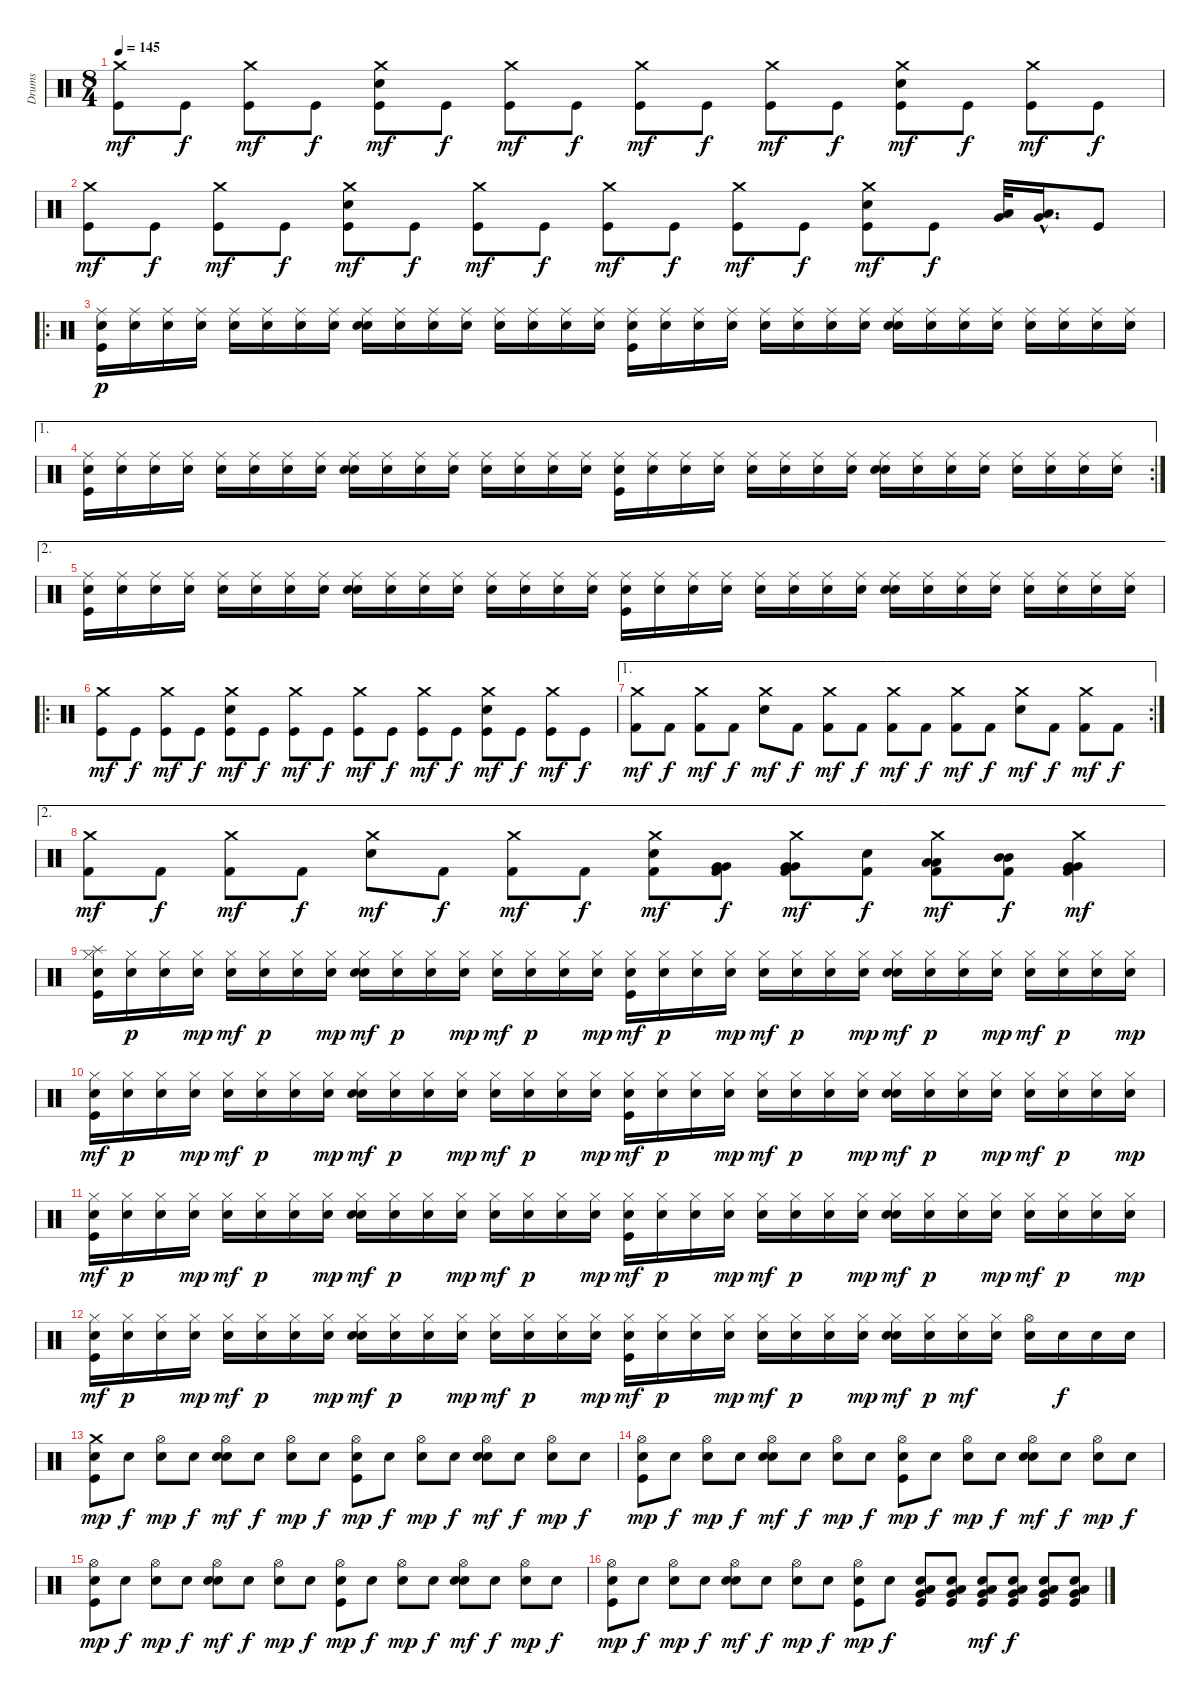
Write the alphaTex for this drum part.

\track ("Drums" "Drums") {instrument percussion}
\staff {score}
\articulation defaults
\ts (8 4)
\tempo 145
\clef neutral
\ks c
("Crash medium (hit)" "Kick (hit)").8{dy mf} "Kick (hit)".8{dy f} ("Crash medium (hit)" "Kick (hit)").8{dy mf} "Kick (hit)".8{dy f} ("Crash medium (hit)" "Electric Snare (hit)" "Kick (hit)").8{dy mf} "Kick (hit)".8{dy f} ("Crash medium (hit)" "Kick (hit)").8{dy mf} "Kick (hit)".8{dy f} ("Crash medium (hit)" "Kick (hit)").8{dy mf} "Kick (hit)".8{dy f} ("Crash medium (hit)" "Kick (hit)").8{dy mf} "Kick (hit)".8{dy f} ("Crash medium (hit)" "Electric Snare (hit)" "Kick (hit)").8{dy mf} "Kick (hit)".8{dy f} ("Crash medium (hit)" "Kick (hit)").8{dy mf} "Kick (hit)".8{dy f} |
("Crash medium (hit)" "Kick (hit)").8{dy mf} "Kick (hit)".8{dy f} ("Crash medium (hit)" "Kick (hit)").8{dy mf} "Kick (hit)".8{dy f} ("Crash medium (hit)" "Electric Snare (hit)" "Kick (hit)").8{dy mf} "Kick (hit)".8{dy f} ("Crash medium (hit)" "Kick (hit)").8{dy mf} "Kick (hit)".8{dy f} ("Crash medium (hit)" "Kick (hit)").8{dy mf} "Kick (hit)".8{dy f} ("Crash medium (hit)" "Kick (hit)").8{dy mf} "Kick (hit)".8{dy f} ("Crash medium (hit)" "Electric Snare (hit)" "Kick (hit)").8{dy mf} "Kick (hit)".8{dy f} ("Low Tom (hit)" "Very Low Tom (hit)").32 ("Low Tom (hit)"{hac} "Very Low Tom (hit)"{hac}).16{d} "Kick (hit)".8 |
\ro
("Snare (hit)"{x} "Ride (middle)" "Kick (hit)").16{dy p} ("Snare (hit)"{x} "Ride (middle)").16 ("Snare (hit)"{x} "Ride (middle)").16 ("Snare (hit)"{x} "Ride (middle)").16 ("Snare (hit)"{x} "Ride (middle)").16 ("Snare (hit)"{x} "Ride (middle)").16 ("Snare (hit)"{x} "Ride (middle)").16 ("Snare (hit)"{x} "Ride (middle)").16 ("Snare (hit)"{x} "Ride (middle)" "Electric Snare (hit)").16 ("Snare (hit)"{x} "Ride (middle)").16 ("Snare (hit)"{x} "Ride (middle)").16 ("Snare (hit)"{x} "Ride (middle)").16 ("Snare (hit)"{x} "Ride (middle)").16 ("Snare (hit)"{x} "Ride (middle)").16 ("Snare (hit)"{x} "Ride (middle)").16 ("Snare (hit)"{x} "Ride (middle)").16 ("Snare (hit)"{x} "Ride (middle)" "Kick (hit)").16 ("Snare (hit)"{x} "Ride (middle)").16 ("Snare (hit)"{x} "Ride (middle)").16 ("Snare (hit)"{x} "Ride (middle)").16 ("Snare (hit)"{x} "Ride (middle)").16 ("Snare (hit)"{x} "Ride (middle)").16 ("Snare (hit)"{x} "Ride (middle)").16 ("Snare (hit)"{x} "Ride (middle)").16 ("Snare (hit)"{x} "Ride (middle)" "Electric Snare (hit)").16 ("Snare (hit)"{x} "Ride (middle)").16 ("Snare (hit)"{x} "Ride (middle)").16 ("Snare (hit)"{x} "Ride (middle)").16 ("Snare (hit)"{x} "Ride (middle)").16 ("Snare (hit)"{x} "Ride (middle)").16 ("Snare (hit)"{x} "Ride (middle)").16 ("Snare (hit)"{x} "Ride (middle)").16 |
\ae 1
\rc 2
("Snare (hit)"{x} "Ride (middle)" "Kick (hit)").16 ("Snare (hit)"{x} "Ride (middle)").16 ("Snare (hit)"{x} "Ride (middle)").16 ("Snare (hit)"{x} "Ride (middle)").16 ("Snare (hit)"{x} "Ride (middle)").16 ("Snare (hit)"{x} "Ride (middle)").16 ("Snare (hit)"{x} "Ride (middle)").16 ("Snare (hit)"{x} "Ride (middle)").16 ("Snare (hit)"{x} "Ride (middle)" "Electric Snare (hit)").16 ("Snare (hit)"{x} "Ride (middle)").16 ("Snare (hit)"{x} "Ride (middle)").16 ("Snare (hit)"{x} "Ride (middle)").16 ("Snare (hit)"{x} "Ride (middle)").16 ("Snare (hit)"{x} "Ride (middle)").16 ("Snare (hit)"{x} "Ride (middle)").16 ("Snare (hit)"{x} "Ride (middle)").16 ("Snare (hit)"{x} "Ride (middle)" "Kick (hit)").16 ("Snare (hit)"{x} "Ride (middle)").16 ("Snare (hit)"{x} "Ride (middle)").16 ("Snare (hit)"{x} "Ride (middle)").16 ("Snare (hit)"{x} "Ride (middle)").16 ("Snare (hit)"{x} "Ride (middle)").16 ("Snare (hit)"{x} "Ride (middle)").16 ("Snare (hit)"{x} "Ride (middle)").16 ("Snare (hit)"{x} "Ride (middle)" "Electric Snare (hit)").16 ("Snare (hit)"{x} "Ride (middle)").16 ("Snare (hit)"{x} "Ride (middle)").16 ("Snare (hit)"{x} "Ride (middle)").16 ("Snare (hit)"{x} "Ride (middle)").16 ("Snare (hit)"{x} "Ride (middle)").16 ("Snare (hit)"{x} "Ride (middle)").16 ("Snare (hit)"{x} "Ride (middle)").16 |
\ae 2
("Snare (hit)"{x} "Ride (middle)" "Kick (hit)").16 ("Snare (hit)"{x} "Ride (middle)").16 ("Snare (hit)"{x} "Ride (middle)").16 ("Snare (hit)"{x} "Ride (middle)").16 ("Snare (hit)"{x} "Ride (middle)").16 ("Snare (hit)"{x} "Ride (middle)").16 ("Snare (hit)"{x} "Ride (middle)").16 ("Snare (hit)"{x} "Ride (middle)").16 ("Snare (hit)"{x} "Ride (middle)" "Electric Snare (hit)").16 ("Snare (hit)"{x} "Ride (middle)").16 ("Snare (hit)"{x} "Ride (middle)").16 ("Snare (hit)"{x} "Ride (middle)").16 ("Snare (hit)"{x} "Ride (middle)").16 ("Snare (hit)"{x} "Ride (middle)").16 ("Snare (hit)"{x} "Ride (middle)").16 ("Snare (hit)"{x} "Ride (middle)").16 ("Snare (hit)"{x} "Ride (middle)" "Kick (hit)").16 ("Snare (hit)"{x} "Ride (middle)").16 ("Snare (hit)"{x} "Ride (middle)").16 ("Snare (hit)"{x} "Ride (middle)").16 ("Snare (hit)"{x} "Ride (middle)").16 ("Snare (hit)"{x} "Ride (middle)").16 ("Snare (hit)"{x} "Ride (middle)").16 ("Snare (hit)"{x} "Ride (middle)").16 ("Snare (hit)"{x} "Ride (middle)" "Electric Snare (hit)").16 ("Snare (hit)"{x} "Ride (middle)").16 ("Snare (hit)"{x} "Ride (middle)").16 ("Snare (hit)"{x} "Ride (middle)").16 ("Snare (hit)"{x} "Ride (middle)").16 ("Snare (hit)"{x} "Ride (middle)").16 ("Snare (hit)"{x} "Ride (middle)").16 ("Snare (hit)"{x} "Ride (middle)").16 |
\ro
("Crash medium (hit)" "Kick (hit)").8{dy mf} "Kick (hit)".8{dy f} ("Crash medium (hit)" "Kick (hit)").8{dy mf} "Kick (hit)".8{dy f} ("Crash medium (hit)" "Electric Snare (hit)" "Kick (hit)").8{dy mf} "Kick (hit)".8{dy f} ("Crash medium (hit)" "Kick (hit)").8{dy mf} "Kick (hit)".8{dy f} ("Crash medium (hit)" "Kick (hit)").8{dy mf} "Kick (hit)".8{dy f} ("Crash medium (hit)" "Kick (hit)").8{dy mf} "Kick (hit)".8{dy f} ("Crash medium (hit)" "Electric Snare (hit)" "Kick (hit)").8{dy mf} "Kick (hit)".8{dy f} ("Crash medium (hit)" "Kick (hit)").8{dy mf} "Kick (hit)".8{dy f} |
\ae 1
\rc 2
("Crash medium (hit)" "Kick (hit) 2").8{dy mf} "Kick (hit) 2".8{dy f} ("Crash medium (hit)" "Kick (hit) 2").8{dy mf} "Kick (hit) 2".8{dy f} ("Crash medium (hit)" "Electric Snare (hit)").8{dy mf} "Kick (hit) 2".8{dy f} ("Crash medium (hit)" "Kick (hit) 2").8{dy mf} "Kick (hit) 2".8{dy f} ("Crash medium (hit)" "Kick (hit) 2").8{dy mf} "Kick (hit) 2".8{dy f} ("Crash medium (hit)" "Kick (hit) 2").8{dy mf} "Kick (hit) 2".8{dy f} ("Crash medium (hit)" "Electric Snare (hit)").8{dy mf} "Kick (hit) 2".8{dy f} ("Crash medium (hit)" "Kick (hit) 2").8{dy mf} "Kick (hit) 2".8{dy f} |
\ae 2
("Crash medium (hit)" "Kick (hit) 2").8{dy mf} "Kick (hit) 2".8{dy f} ("Crash medium (hit)" "Kick (hit) 2").8{dy mf} "Kick (hit) 2".8{dy f} ("Crash medium (hit)" "Electric Snare (hit)").8{dy mf} "Kick (hit) 2".8{dy f} ("Crash medium (hit)" "Kick (hit) 2").8{dy mf} "Kick (hit) 2".8{dy f} ("Crash medium (hit)" "Electric Snare (hit)" "Kick (hit) 2").8{dy mf} ("Very Low Tom (hit)" "Very Low Tom (hit)" "Kick (hit) 2").8{dy f} ("Crash medium (hit)" "Very Low Tom (hit)" "Very Low Tom (hit)" "Kick (hit) 2").8{dy mf} ("Electric Snare (hit)" "Kick (hit) 2").8{dy f} ("Crash medium (hit)" "Low Tom (hit)" "Low Tom (hit)" "Kick (hit) 2").8{dy mf} ("Mid Tom (hit)" "Mid Tom (hit)" "Kick (hit) 2").8{dy f} ("Crash medium (hit)" "Very Low Tom (hit)" "Very Low Tom (hit)" "Kick (hit) 2").4{dy mf} |
("Snare (hit)"{x} "Hi-Hat (closed)" "Splash (hit)" "Kick (hit)").16 ("Snare (hit)"{x} "Hi-Hat (closed)").16{dy p} ("Snare (hit)"{x} "Hi-Hat (closed)").16 ("Snare (hit)"{x} "Hi-Hat (closed)").16{dy mp} ("Snare (hit)"{x} "Hi-Hat (closed)").16{dy mf} ("Snare (hit)"{x} "Hi-Hat (closed)").16{dy p} ("Snare (hit)"{x} "Hi-Hat (closed)").16 ("Snare (hit)"{x} "Hi-Hat (closed)").16{dy mp} ("Snare (hit)"{x} "Hi-Hat (closed)" "Electric Snare (hit)").16{dy mf} ("Snare (hit)"{x} "Hi-Hat (closed)").16{dy p} ("Snare (hit)"{x} "Hi-Hat (closed)").16 ("Snare (hit)"{x} "Hi-Hat (closed)").16{dy mp} ("Snare (hit)"{x} "Hi-Hat (closed)").16{dy mf} ("Snare (hit)"{x} "Hi-Hat (closed)").16{dy p} ("Snare (hit)"{x} "Hi-Hat (closed)").16 ("Snare (hit)"{x} "Hi-Hat (closed)").16{dy mp} ("Snare (hit)"{x} "Hi-Hat (closed)" "Kick (hit)").16{dy mf} ("Snare (hit)"{x} "Hi-Hat (closed)").16{dy p} ("Snare (hit)"{x} "Hi-Hat (closed)").16 ("Snare (hit)"{x} "Hi-Hat (closed)").16{dy mp} ("Snare (hit)"{x} "Hi-Hat (closed)").16{dy mf} ("Snare (hit)"{x} "Hi-Hat (closed)").16{dy p} ("Snare (hit)"{x} "Hi-Hat (closed)").16 ("Snare (hit)"{x} "Hi-Hat (closed)").16{dy mp} ("Snare (hit)"{x} "Hi-Hat (closed)" "Electric Snare (hit)").16{dy mf} ("Snare (hit)"{x} "Hi-Hat (closed)").16{dy p} ("Snare (hit)"{x} "Hi-Hat (closed)").16 ("Snare (hit)"{x} "Hi-Hat (closed)").16{dy mp} ("Snare (hit)"{x} "Hi-Hat (closed)").16{dy mf} ("Snare (hit)"{x} "Hi-Hat (closed)").16{dy p} ("Snare (hit)"{x} "Hi-Hat (closed)").16 ("Snare (hit)"{x} "Hi-Hat (closed)").16{dy mp} |
("Snare (hit)"{x} "Hi-Hat (closed)" "Kick (hit)").16{dy mf} ("Snare (hit)"{x} "Hi-Hat (closed)").16{dy p} ("Snare (hit)"{x} "Hi-Hat (closed)").16 ("Snare (hit)"{x} "Hi-Hat (closed)").16{dy mp} ("Snare (hit)"{x} "Hi-Hat (closed)").16{dy mf} ("Snare (hit)"{x} "Hi-Hat (closed)").16{dy p} ("Snare (hit)"{x} "Hi-Hat (closed)").16 ("Snare (hit)"{x} "Hi-Hat (closed)").16{dy mp} ("Snare (hit)"{x} "Hi-Hat (closed)" "Electric Snare (hit)").16{dy mf} ("Snare (hit)"{x} "Hi-Hat (closed)").16{dy p} ("Snare (hit)"{x} "Hi-Hat (closed)").16 ("Snare (hit)"{x} "Hi-Hat (closed)").16{dy mp} ("Snare (hit)"{x} "Hi-Hat (closed)").16{dy mf} ("Snare (hit)"{x} "Hi-Hat (closed)").16{dy p} ("Snare (hit)"{x} "Hi-Hat (closed)").16 ("Snare (hit)"{x} "Hi-Hat (closed)").16{dy mp} ("Snare (hit)"{x} "Hi-Hat (closed)" "Kick (hit)").16{dy mf} ("Snare (hit)"{x} "Hi-Hat (closed)").16{dy p} ("Snare (hit)"{x} "Hi-Hat (closed)").16 ("Snare (hit)"{x} "Hi-Hat (closed)").16{dy mp} ("Snare (hit)"{x} "Hi-Hat (closed)").16{dy mf} ("Snare (hit)"{x} "Hi-Hat (closed)").16{dy p} ("Snare (hit)"{x} "Hi-Hat (closed)").16 ("Snare (hit)"{x} "Hi-Hat (closed)").16{dy mp} ("Snare (hit)"{x} "Hi-Hat (closed)" "Electric Snare (hit)").16{dy mf} ("Snare (hit)"{x} "Hi-Hat (closed)").16{dy p} ("Snare (hit)"{x} "Hi-Hat (closed)").16 ("Snare (hit)"{x} "Hi-Hat (closed)").16{dy mp} ("Snare (hit)"{x} "Hi-Hat (closed)").16{dy mf} ("Snare (hit)"{x} "Hi-Hat (closed)").16{dy p} ("Snare (hit)"{x} "Hi-Hat (closed)").16 ("Snare (hit)"{x} "Hi-Hat (closed)").16{dy mp} |
("Snare (hit)"{x} "Hi-Hat (closed)" "Kick (hit)").16{dy mf} ("Snare (hit)"{x} "Hi-Hat (closed)").16{dy p} ("Snare (hit)"{x} "Hi-Hat (closed)").16 ("Snare (hit)"{x} "Hi-Hat (closed)").16{dy mp} ("Snare (hit)"{x} "Hi-Hat (closed)").16{dy mf} ("Snare (hit)"{x} "Hi-Hat (closed)").16{dy p} ("Snare (hit)"{x} "Hi-Hat (closed)").16 ("Snare (hit)"{x} "Hi-Hat (closed)").16{dy mp} ("Snare (hit)"{x} "Hi-Hat (closed)" "Electric Snare (hit)").16{dy mf} ("Snare (hit)"{x} "Hi-Hat (closed)").16{dy p} ("Snare (hit)"{x} "Hi-Hat (closed)").16 ("Snare (hit)"{x} "Hi-Hat (closed)").16{dy mp} ("Snare (hit)"{x} "Hi-Hat (closed)").16{dy mf} ("Snare (hit)"{x} "Hi-Hat (closed)").16{dy p} ("Snare (hit)"{x} "Hi-Hat (closed)").16 ("Snare (hit)"{x} "Hi-Hat (closed)").16{dy mp} ("Snare (hit)"{x} "Hi-Hat (closed)" "Kick (hit)").16{dy mf} ("Snare (hit)"{x} "Hi-Hat (closed)").16{dy p} ("Snare (hit)"{x} "Hi-Hat (closed)").16 ("Snare (hit)"{x} "Hi-Hat (closed)").16{dy mp} ("Snare (hit)"{x} "Hi-Hat (closed)").16{dy mf} ("Snare (hit)"{x} "Hi-Hat (closed)").16{dy p} ("Snare (hit)"{x} "Hi-Hat (closed)").16 ("Snare (hit)"{x} "Hi-Hat (closed)").16{dy mp} ("Snare (hit)"{x} "Hi-Hat (closed)" "Electric Snare (hit)").16{dy mf} ("Snare (hit)"{x} "Hi-Hat (closed)").16{dy p} ("Snare (hit)"{x} "Hi-Hat (closed)").16 ("Snare (hit)"{x} "Hi-Hat (closed)").16{dy mp} ("Snare (hit)"{x} "Hi-Hat (closed)").16{dy mf} ("Snare (hit)"{x} "Hi-Hat (closed)").16{dy p} ("Snare (hit)"{x} "Hi-Hat (closed)").16 ("Snare (hit)"{x} "Hi-Hat (closed)").16{dy mp} |
("Snare (hit)"{x} "Hi-Hat (closed)" "Kick (hit)").16{dy mf} ("Snare (hit)"{x} "Hi-Hat (closed)").16{dy p} ("Snare (hit)"{x} "Hi-Hat (closed)").16 ("Snare (hit)"{x} "Hi-Hat (closed)").16{dy mp} ("Snare (hit)"{x} "Hi-Hat (closed)").16{dy mf} ("Snare (hit)"{x} "Hi-Hat (closed)").16{dy p} ("Snare (hit)"{x} "Hi-Hat (closed)").16 ("Snare (hit)"{x} "Hi-Hat (closed)").16{dy mp} ("Snare (hit)"{x} "Hi-Hat (closed)" "Electric Snare (hit)").16{dy mf} ("Snare (hit)"{x} "Hi-Hat (closed)").16{dy p} ("Snare (hit)"{x} "Hi-Hat (closed)").16 ("Snare (hit)"{x} "Hi-Hat (closed)").16{dy mp} ("Snare (hit)"{x} "Hi-Hat (closed)").16{dy mf} ("Snare (hit)"{x} "Hi-Hat (closed)").16{dy p} ("Snare (hit)"{x} "Hi-Hat (closed)").16 ("Snare (hit)"{x} "Hi-Hat (closed)").16{dy mp} ("Snare (hit)"{x} "Hi-Hat (closed)" "Kick (hit)").16{dy mf} ("Snare (hit)"{x} "Hi-Hat (closed)").16{dy p} ("Snare (hit)"{x} "Hi-Hat (closed)").16 ("Snare (hit)"{x} "Hi-Hat (closed)").16{dy mp} ("Snare (hit)"{x} "Hi-Hat (closed)").16{dy mf} ("Snare (hit)"{x} "Hi-Hat (closed)").16{dy p} ("Snare (hit)"{x} "Hi-Hat (closed)").16 ("Snare (hit)"{x} "Hi-Hat (closed)").16{dy mp} ("Snare (hit)"{x} "Hi-Hat (closed)" "Electric Snare (hit)").16{dy mf} ("Snare (hit)"{x} "Hi-Hat (closed)").16{dy p} ("Snare (hit)"{x} "Hi-Hat (closed)").16{dy mf} ("Snare (hit)"{x} "Hi-Hat (closed)").16 ("Snare (hit)"{x} "Hi-Hat (open)").16 "Snare (hit)"{x}.16{dy f} "Snare (hit)"{x}.16 "Snare (hit)"{x}.16 |
("Snare (hit)"{x} "Crash medium (hit)" "Kick (hit)").8{dy mp} "Snare (hit)"{x}.8{dy f} ("Snare (hit)"{x} "Hi-Hat (open)").8{dy mp} "Snare (hit)"{x}.8{dy f} ("Snare (hit)"{x} "Hi-Hat (open)" "Electric Snare (hit)").8{dy mf} "Snare (hit)"{x}.8{dy f} ("Snare (hit)"{x} "Hi-Hat (open)").8{dy mp} "Snare (hit)"{x}.8{dy f} ("Snare (hit)"{x} "Hi-Hat (open)" "Kick (hit)").8{dy mp} "Snare (hit)"{x}.8{dy f} ("Snare (hit)"{x} "Hi-Hat (open)").8{dy mp} "Snare (hit)"{x}.8{dy f} ("Snare (hit)"{x} "Hi-Hat (open)" "Electric Snare (hit)").8{dy mf} "Snare (hit)"{x}.8{dy f} ("Snare (hit)"{x} "Hi-Hat (open)").8{dy mp} "Snare (hit)"{x}.8{dy f} |
("Snare (hit)"{x} "Hi-Hat (open)" "Kick (hit)").8{dy mp} "Snare (hit)"{x}.8{dy f} ("Snare (hit)"{x} "Hi-Hat (open)").8{dy mp} "Snare (hit)"{x}.8{dy f} ("Snare (hit)"{x} "Hi-Hat (open)" "Electric Snare (hit)").8{dy mf} "Snare (hit)"{x}.8{dy f} ("Snare (hit)"{x} "Hi-Hat (open)").8{dy mp} "Snare (hit)"{x}.8{dy f} ("Snare (hit)"{x} "Hi-Hat (open)" "Kick (hit)").8{dy mp} "Snare (hit)"{x}.8{dy f} ("Snare (hit)"{x} "Hi-Hat (open)").8{dy mp} "Snare (hit)"{x}.8{dy f} ("Snare (hit)"{x} "Hi-Hat (open)" "Electric Snare (hit)").8{dy mf} "Snare (hit)"{x}.8{dy f} ("Snare (hit)"{x} "Hi-Hat (open)").8{dy mp} "Snare (hit)"{x}.8{dy f} |
("Snare (hit)"{x} "Hi-Hat (open)" "Kick (hit)").8{dy mp} "Snare (hit)"{x}.8{dy f} ("Snare (hit)"{x} "Hi-Hat (open)").8{dy mp} "Snare (hit)"{x}.8{dy f} ("Snare (hit)"{x} "Hi-Hat (open)" "Electric Snare (hit)").8{dy mf} "Snare (hit)"{x}.8{dy f} ("Snare (hit)"{x} "Hi-Hat (open)").8{dy mp} "Snare (hit)"{x}.8{dy f} ("Snare (hit)"{x} "Hi-Hat (open)" "Kick (hit)").8{dy mp} "Snare (hit)"{x}.8{dy f} ("Snare (hit)"{x} "Hi-Hat (open)").8{dy mp} "Snare (hit)"{x}.8{dy f} ("Snare (hit)"{x} "Hi-Hat (open)" "Electric Snare (hit)").8{dy mf} "Snare (hit)"{x}.8{dy f} ("Snare (hit)"{x} "Hi-Hat (open)").8{dy mp} "Snare (hit)"{x}.8{dy f} |
("Snare (hit)"{x} "Hi-Hat (open)" "Kick (hit)").8{dy mp} "Snare (hit)"{x}.8{dy f} ("Snare (hit)"{x} "Hi-Hat (open)").8{dy mp} "Snare (hit)"{x}.8{dy f} ("Snare (hit)"{x} "Hi-Hat (open)" "Electric Snare (hit)").8{dy mf} "Snare (hit)"{x}.8{dy f} ("Snare (hit)"{x} "Hi-Hat (open)").8{dy mp} "Snare (hit)"{x}.8{dy f} ("Snare (hit)"{x} "Hi-Hat (open)" "Kick (hit)").8{dy mp} "Snare (hit)"{x}.8{dy f} ("Snare (hit)"{x} "Very Low Tom (hit)" "Low Tom (hit)" "Kick (hit)").8 ("Snare (hit)"{x} "Very Low Tom (hit)" "Low Tom (hit)" "Kick (hit)").8 ("Snare (hit)"{x} "Very Low Tom (hit)" "Low Tom (hit)" "Kick (hit)").8{dy mf} ("Snare (hit)"{x} "Very Low Tom (hit)" "Low Tom (hit)" "Kick (hit)").8{dy f} ("Snare (hit)"{x} "Very Low Tom (hit)" "Low Tom (hit)" "Kick (hit)").8 ("Snare (hit)"{x} "Very Low Tom (hit)" "Low Tom (hit)" "Kick (hit)").8
